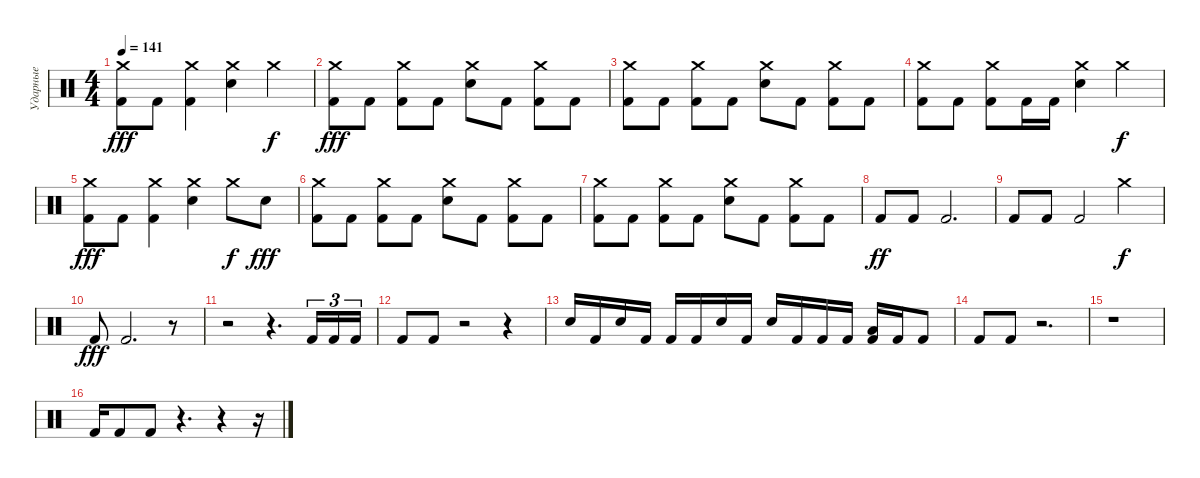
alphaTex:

\track ("Ударные" "Ударные") {instrument percussion}
\staff {score}
\articulation defaults
\ts (4 4)
\tempo 141
\clef neutral
\ks c
("Crash medium (hit)" "Kick (hit) 2").8{dy fff} "Kick (hit) 2".8 ("Crash medium (hit)" "Kick (hit) 2").4 ("Crash medium (hit)" "Electric Snare (hit)").4 "Crash medium (hit)".4{dy f} |
("Crash medium (hit)" "Kick (hit) 2").8{dy fff} "Kick (hit) 2".8 ("Crash medium (hit)" "Kick (hit) 2").8 "Kick (hit) 2".8 ("Crash medium (hit)" "Electric Snare (hit)").8 "Kick (hit) 2".8 ("Crash medium (hit)" "Kick (hit) 2").8 "Kick (hit) 2".8 |
("Crash medium (hit)" "Kick (hit) 2").8 "Kick (hit) 2".8 ("Crash medium (hit)" "Kick (hit) 2").8 "Kick (hit) 2".8 ("Crash medium (hit)" "Electric Snare (hit)").8 "Kick (hit) 2".8 ("Crash medium (hit)" "Kick (hit) 2").8 "Kick (hit) 2".8 |
("Crash medium (hit)" "Kick (hit) 2").8 "Kick (hit) 2".8 ("Crash medium (hit)" "Kick (hit) 2").8 "Kick (hit) 2".16 "Kick (hit) 2".16 ("Crash medium (hit)" "Electric Snare (hit)").4 "Crash medium (hit)".4{dy f} |
("Crash medium (hit)" "Kick (hit) 2").8{dy fff} "Kick (hit) 2".8 ("Crash medium (hit)" "Kick (hit) 2").4 ("Crash medium (hit)" "Electric Snare (hit)").4 "Crash medium (hit)".8{dy f} "Electric Snare (hit)".8{dy fff} |
("Crash medium (hit)" "Kick (hit) 2").8 "Kick (hit) 2".8 ("Crash medium (hit)" "Kick (hit) 2").8 "Kick (hit) 2".8 ("Crash medium (hit)" "Electric Snare (hit)").8 "Kick (hit) 2".8 ("Crash medium (hit)" "Kick (hit) 2").8 "Kick (hit) 2".8 |
("Crash medium (hit)" "Kick (hit) 2").8 "Kick (hit) 2".8 ("Crash medium (hit)" "Kick (hit) 2").8 "Kick (hit) 2".8 ("Crash medium (hit)" "Electric Snare (hit)").8 "Kick (hit) 2".8 ("Crash medium (hit)" "Kick (hit) 2").8 "Kick (hit) 2".8 |
"Kick (hit) 2".8{dy ff} "Kick (hit) 2".8 "Kick (hit) 2".2{d} |
"Kick (hit) 2".8 "Kick (hit) 2".8 "Kick (hit) 2".2 "Crash medium (hit)".4{dy f} |
"Kick (hit) 2".8{dy fff} "Kick (hit) 2".2{d} r.8 |
r.2 r.4{d} "Kick (hit) 2".16{tu (3 2)} "Kick (hit) 2".16{tu (3 2)} "Kick (hit) 2".16{tu (3 2)} |
"Kick (hit) 2".8 "Kick (hit) 2".8 r.2 r.4 |
"Electric Snare (hit)".16 "Kick (hit) 2".16 "Electric Snare (hit)".16 "Kick (hit) 2".16 "Kick (hit) 2".16 "Kick (hit) 2".16 "Electric Snare (hit)".16 "Kick (hit) 2".16 "Electric Snare (hit)".16 "Kick (hit) 2".16 "Kick (hit) 2".16 "Kick (hit) 2".16 ("Low Tom (hit)" "Kick (hit) 2").16 "Kick (hit) 2".16 "Kick (hit) 2".8 |
"Kick (hit) 2".8 "Kick (hit) 2".8 r.2{d} |
r.1 |
"Kick (hit) 2".16 "Kick (hit) 2".8 "Kick (hit) 2".8 r.4{d} r.4 r.16
